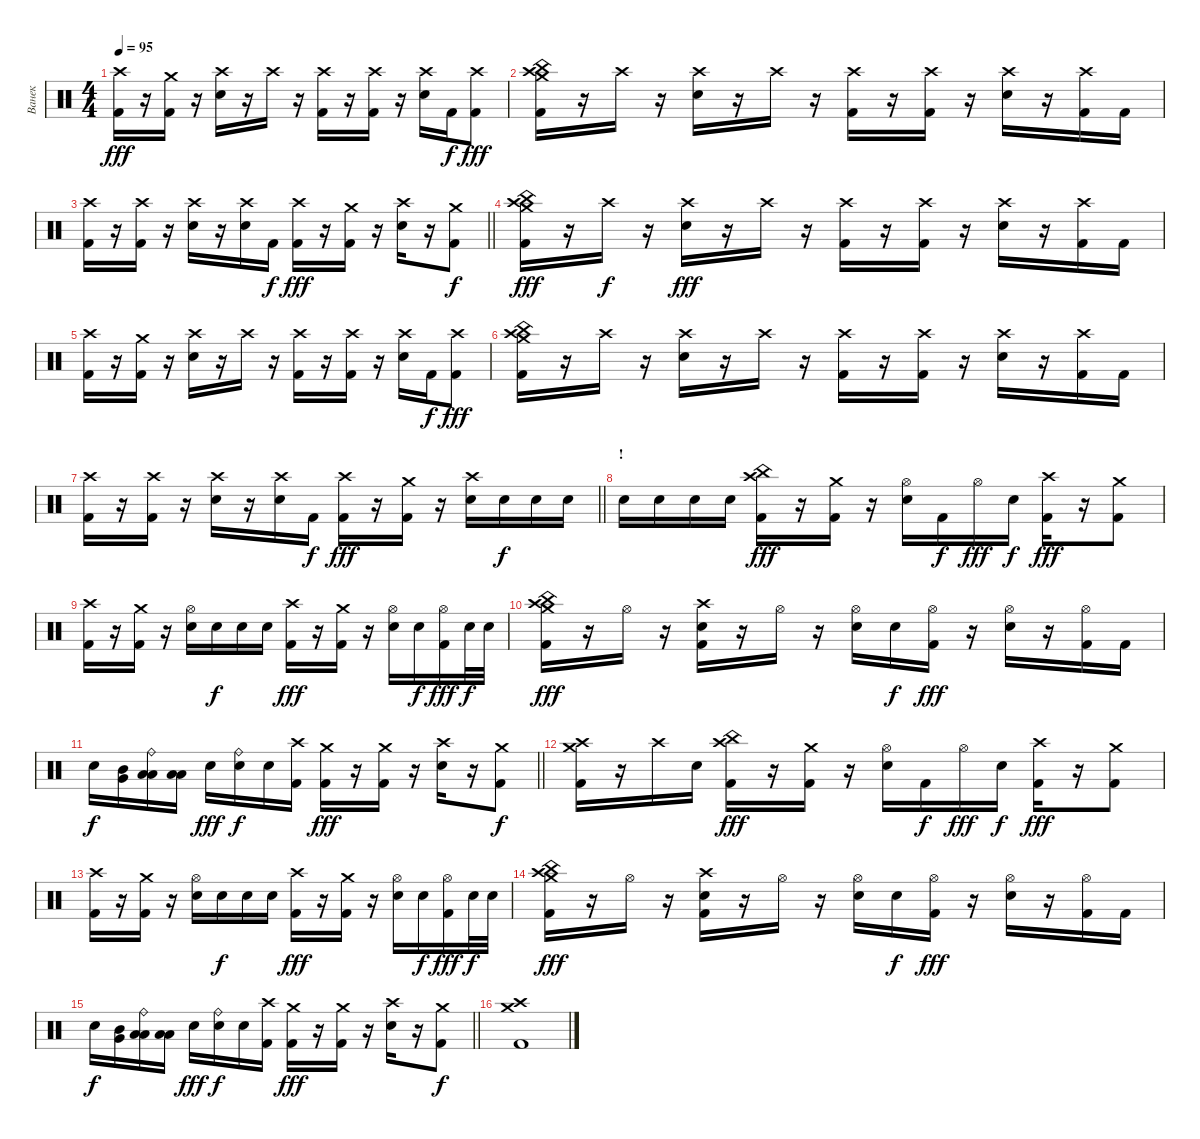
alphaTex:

\track ("Ванек" "Ванек") {instrument percussion}
\staff {score}
\articulation defaults
\ts (4 4)
\tempo 95
\clef neutral
\ks c
("Crash high (hit)" "Kick (hit) 2").16{dy fff} r.16 ("Crash medium (hit)" "Kick (hit) 2").16 r.16 ("Crash high (hit)" "Snare (hit) 2").16 r.16 "Crash high (hit)".16 r.16 ("Crash high (hit)" "Kick (hit) 2").16 r.16 ("Crash high (hit)" "Kick (hit) 2").16 r.16 ("Crash high (hit)" "Snare (hit) 2").16 "Kick (hit) 2".16{dy f} ("Crash high (hit)" "Kick (hit) 2").8{dy fff} |
("Crash high (hit)" "Crash medium (hit)" "China (hit)" "Kick (hit) 2").16 r.16 "Crash high (hit)".16 r.16 ("Crash high (hit)" "Snare (hit) 2").16 r.16 "Crash high (hit)".16 r.16 ("Crash high (hit)" "Kick (hit) 2").16 r.16 ("Crash high (hit)" "Kick (hit) 2").16 r.16 ("Crash high (hit)" "Snare (hit) 2").16 r.16 ("Crash high (hit)" "Kick (hit) 2").16 "Kick (hit) 2".16 |
\barLineRight lightlight
("Crash high (hit)" "Kick (hit) 2").16 r.16 ("Crash high (hit)" "Kick (hit) 2").16 r.16 ("Crash high (hit)" "Snare (hit) 2").16 r.16 ("Crash high (hit)" "Snare (hit) 2").16 "Kick (hit) 2".16{dy f} ("Crash high (hit)" "Kick (hit) 2").16{dy fff} r.16 ("Crash medium (hit)" "Kick (hit) 2").16 r.16 ("Crash high (hit)" "Snare (hit) 2").16 r.16 ("Crash medium (hit)" "Kick (hit) 2").8{dy f} |
("Crash high (hit)" "Crash medium (hit)" "China (hit)" "Kick (hit) 2").16{dy fff} r.16 "Crash high (hit)".16{dy f} r.16 ("Crash high (hit)" "Snare (hit) 2").16{dy fff} r.16 "Crash high (hit)".16 r.16 ("Crash high (hit)" "Kick (hit) 2").16 r.16 ("Crash high (hit)" "Kick (hit) 2").16 r.16 ("Crash high (hit)" "Snare (hit) 2").16 r.16 ("Crash high (hit)" "Kick (hit) 2").16 "Kick (hit) 2".16 |
("Crash high (hit)" "Kick (hit) 2").16 r.16 ("Crash medium (hit)" "Kick (hit) 2").16 r.16 ("Crash high (hit)" "Snare (hit) 2").16 r.16 "Crash high (hit)".16 r.16 ("Crash high (hit)" "Kick (hit) 2").16 r.16 ("Crash high (hit)" "Kick (hit) 2").16 r.16 ("Crash high (hit)" "Snare (hit) 2").16 "Kick (hit) 2".16{dy f} ("Crash high (hit)" "Kick (hit) 2").8{dy fff} |
("Crash high (hit)" "Crash medium (hit)" "China (hit)" "Kick (hit) 2").16 r.16 "Crash high (hit)".16 r.16 ("Crash high (hit)" "Snare (hit) 2").16 r.16 "Crash high (hit)".16 r.16 ("Crash high (hit)" "Kick (hit) 2").16 r.16 ("Crash high (hit)" "Kick (hit) 2").16 r.16 ("Crash high (hit)" "Snare (hit) 2").16 r.16 ("Crash high (hit)" "Kick (hit) 2").16 "Kick (hit) 2".16 |
\barLineRight lightlight
("Crash high (hit)" "Kick (hit) 2").16 r.16 ("Crash high (hit)" "Kick (hit) 2").16 r.16 ("Crash high (hit)" "Snare (hit) 2").16 r.16 ("Crash high (hit)" "Snare (hit) 2").16 "Kick (hit) 2".16{dy f} ("Crash high (hit)" "Kick (hit) 2").16{dy fff} r.16 ("Crash medium (hit)" "Kick (hit) 2").16 r.16 ("Crash high (hit)" "Snare (hit) 2").16 "Snare (hit) 2".16{dy f} "Snare (hit) 2".16 "Snare (hit) 2".16 |
\section ("" "!")
"Snare (hit) 2".16 "Snare (hit) 2".16 "Snare (hit) 2".16 "Snare (hit) 2".16 ("Crash high (hit)" "China (hit)" "Kick (hit) 2").16{dy fff} r.16 ("Crash medium (hit)" "Kick (hit) 2").16 r.16 ("Hi-Hat (open)" "Snare (hit) 2").16 "Kick (hit) 2".16{dy f} "Hi-Hat (open)".16{dy fff} "Snare (hit) 2".16{dy f} ("Crash high (hit)" "Kick (hit) 2").16{dy fff} r.16 ("Crash medium (hit)" "Kick (hit) 2").8 |
("Crash high (hit)" "Kick (hit) 2").16 r.16 ("Crash medium (hit)" "Kick (hit) 2").16 r.16 ("Hi-Hat (open)" "Snare (hit) 2").16 "Snare (hit) 2".16{dy f} "Snare (hit) 2".16 "Snare (hit) 2".16 ("Crash high (hit)" "Kick (hit) 2").16{dy fff} r.16 ("Crash medium (hit)" "Kick (hit) 2").16 r.16 ("Hi-Hat (open)" "Snare (hit) 2").16 "Snare (hit) 2".16{dy f} ("Hi-Hat (open)" "Kick (hit) 2").16{dy fff} "Snare (hit) 2".32{dy f} "Snare (hit) 2".32 |
("Crash high (hit)" "Crash medium (hit)" "China (hit)" "Kick (hit) 2").16{dy fff} r.16 "Hi-Hat (open)".16 r.16 ("Crash high (hit)" "Snare (hit) 2" "Kick (hit) 2").16 r.16 "Hi-Hat (open)".16 r.16 ("Hi-Hat (open)" "Snare (hit) 2").16 "Snare (hit) 2".16{dy f} ("Hi-Hat (open)" "Kick (hit) 2").16{dy fff} r.16 ("Hi-Hat (open)" "Snare (hit) 2").16 r.16 ("Hi-Hat (open)" "Kick (hit) 2").16 "Kick (hit) 2".16 |
\barLineRight lightlight "Snare (hit) 2".16{dy f}
("Mid Tom (hit)" "Very Low Tom (hit)").16 ("Ride (bell)" "Low Floor Tom (hit)" "Low Tom (hit)").16 ("Low Floor Tom (hit)" "Low Tom (hit)").16 "Snare (hit) 2".16{dy fff} ("Ride (bell)" "Snare (hit) 2").16{dy f} "Snare (hit) 2".16 ("Crash high (hit)" "Kick (hit) 2").16 ("Crash medium (hit)" "Kick (hit) 2").16{dy fff} r.16 ("Crash medium (hit)" "Kick (hit) 2").16 r.16 ("Crash high (hit)" "Snare (hit) 2").16 r.16 ("Crash medium (hit)" "Kick (hit) 2").8{dy f} |
("Crash medium (hit)" "Crash high (hit)" "Kick (hit) 2").16 r.16 "Crash high (hit)".16 "Snare (hit) 2".16 ("Crash high (hit)" "China (hit)" "Kick (hit) 2").16{dy fff} r.16 ("Crash medium (hit)" "Kick (hit) 2").16 r.16 ("Hi-Hat (open)" "Snare (hit) 2").16 "Kick (hit) 2".16{dy f} "Hi-Hat (open)".16{dy fff} "Snare (hit) 2".16{dy f} ("Crash high (hit)" "Kick (hit) 2").16{dy fff} r.16 ("Crash medium (hit)" "Kick (hit) 2").8 |
("Crash high (hit)" "Kick (hit) 2").16 r.16 ("Crash medium (hit)" "Kick (hit) 2").16 r.16 ("Hi-Hat (open)" "Snare (hit) 2").16 "Snare (hit) 2".16{dy f} "Snare (hit) 2".16 "Snare (hit) 2".16 ("Crash high (hit)" "Kick (hit) 2").16{dy fff} r.16 ("Crash medium (hit)" "Kick (hit) 2").16 r.16 ("Hi-Hat (open)" "Snare (hit) 2").16 "Snare (hit) 2".16{dy f} ("Hi-Hat (open)" "Kick (hit) 2").16{dy fff} "Snare (hit) 2".32{dy f} "Snare (hit) 2".32 |
("Crash high (hit)" "Crash medium (hit)" "China (hit)" "Kick (hit) 2").16{dy fff} r.16 "Hi-Hat (open)".16 r.16 ("Crash high (hit)" "Snare (hit) 2" "Kick (hit) 2").16 r.16 "Hi-Hat (open)".16 r.16 ("Hi-Hat (open)" "Snare (hit) 2").16 "Snare (hit) 2".16{dy f} ("Hi-Hat (open)" "Kick (hit) 2").16{dy fff} r.16 ("Hi-Hat (open)" "Snare (hit) 2").16 r.16 ("Hi-Hat (open)" "Kick (hit) 2").16 "Kick (hit) 2".16 |
\barLineRight lightlight "Snare (hit) 2".16{dy f}
("Mid Tom (hit)" "Very Low Tom (hit)").16 ("Ride (bell)" "Low Floor Tom (hit)" "Low Tom (hit)").16 ("Low Floor Tom (hit)" "Low Tom (hit)").16 "Snare (hit) 2".16{dy fff} ("Ride (bell)" "Snare (hit) 2").16{dy f} "Snare (hit) 2".16 ("Crash high (hit)" "Kick (hit) 2").16 ("Crash medium (hit)" "Kick (hit) 2").16{dy fff} r.16 ("Crash medium (hit)" "Kick (hit) 2").16 r.16 ("Crash high (hit)" "Snare (hit) 2").16 r.16 ("Crash medium (hit)" "Kick (hit) 2").8{dy f} |
("Crash high (hit)" "Crash medium (hit)" "Kick (hit) 2").1
